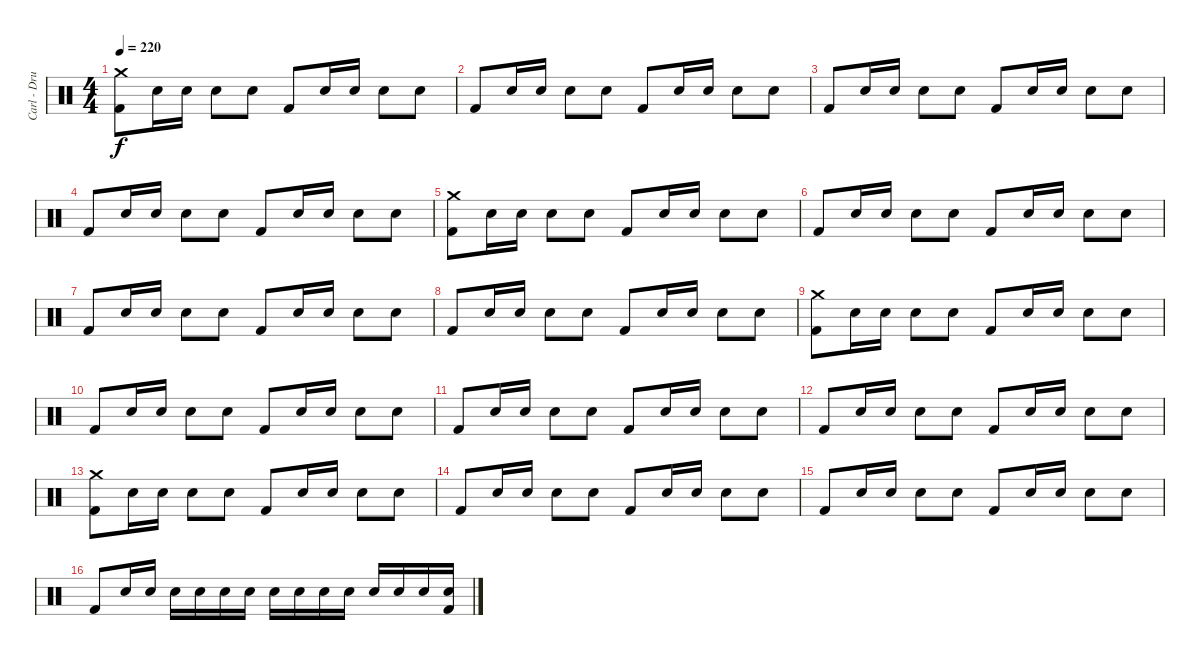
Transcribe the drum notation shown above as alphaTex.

\track ("Carl - Drums" "Carl - Dru") {instrument percussion}
\staff {score}
\articulation defaults
\ts (4 4)
\tempo 220
\clef neutral
\ks c
("Crash medium (hit)" "Kick (hit) 2").8{dy f} "Electric Snare (hit)".16 "Electric Snare (hit)".16 "Electric Snare (hit)".8 "Electric Snare (hit)".8 "Kick (hit) 2".8 "Electric Snare (hit)".16 "Electric Snare (hit)".16 "Electric Snare (hit)".8 "Electric Snare (hit)".8 |
"Kick (hit) 2".8 "Electric Snare (hit)".16 "Electric Snare (hit)".16 "Electric Snare (hit)".8 "Electric Snare (hit)".8 "Kick (hit) 2".8 "Electric Snare (hit)".16 "Electric Snare (hit)".16 "Electric Snare (hit)".8 "Electric Snare (hit)".8 |
"Kick (hit) 2".8 "Electric Snare (hit)".16 "Electric Snare (hit)".16 "Electric Snare (hit)".8 "Electric Snare (hit)".8 "Kick (hit) 2".8 "Electric Snare (hit)".16 "Electric Snare (hit)".16 "Electric Snare (hit)".8 "Electric Snare (hit)".8 |
"Kick (hit) 2".8 "Electric Snare (hit)".16 "Electric Snare (hit)".16 "Electric Snare (hit)".8 "Electric Snare (hit)".8 "Kick (hit) 2".8 "Electric Snare (hit)".16 "Electric Snare (hit)".16 "Electric Snare (hit)".8 "Electric Snare (hit)".8 |
("Crash medium (hit)" "Kick (hit) 2").8 "Electric Snare (hit)".16 "Electric Snare (hit)".16 "Electric Snare (hit)".8 "Electric Snare (hit)".8 "Kick (hit) 2".8 "Electric Snare (hit)".16 "Electric Snare (hit)".16 "Electric Snare (hit)".8 "Electric Snare (hit)".8 |
"Kick (hit) 2".8 "Electric Snare (hit)".16 "Electric Snare (hit)".16 "Electric Snare (hit)".8 "Electric Snare (hit)".8 "Kick (hit) 2".8 "Electric Snare (hit)".16 "Electric Snare (hit)".16 "Electric Snare (hit)".8 "Electric Snare (hit)".8 |
"Kick (hit) 2".8 "Electric Snare (hit)".16 "Electric Snare (hit)".16 "Electric Snare (hit)".8 "Electric Snare (hit)".8 "Kick (hit) 2".8 "Electric Snare (hit)".16 "Electric Snare (hit)".16 "Electric Snare (hit)".8 "Electric Snare (hit)".8 |
"Kick (hit) 2".8 "Electric Snare (hit)".16 "Electric Snare (hit)".16 "Electric Snare (hit)".8 "Electric Snare (hit)".8 "Kick (hit) 2".8 "Electric Snare (hit)".16 "Electric Snare (hit)".16 "Electric Snare (hit)".8 "Electric Snare (hit)".8 |
("Crash medium (hit)" "Kick (hit) 2").8 "Electric Snare (hit)".16 "Electric Snare (hit)".16 "Electric Snare (hit)".8 "Electric Snare (hit)".8 "Kick (hit) 2".8 "Electric Snare (hit)".16 "Electric Snare (hit)".16 "Electric Snare (hit)".8 "Electric Snare (hit)".8 |
"Kick (hit) 2".8 "Electric Snare (hit)".16 "Electric Snare (hit)".16 "Electric Snare (hit)".8 "Electric Snare (hit)".8 "Kick (hit) 2".8 "Electric Snare (hit)".16 "Electric Snare (hit)".16 "Electric Snare (hit)".8 "Electric Snare (hit)".8 |
"Kick (hit) 2".8 "Electric Snare (hit)".16 "Electric Snare (hit)".16 "Electric Snare (hit)".8 "Electric Snare (hit)".8 "Kick (hit) 2".8 "Electric Snare (hit)".16 "Electric Snare (hit)".16 "Electric Snare (hit)".8 "Electric Snare (hit)".8 |
"Kick (hit) 2".8 "Electric Snare (hit)".16 "Electric Snare (hit)".16 "Electric Snare (hit)".8 "Electric Snare (hit)".8 "Kick (hit) 2".8 "Electric Snare (hit)".16 "Electric Snare (hit)".16 "Electric Snare (hit)".8 "Electric Snare (hit)".8 |
("Crash medium (hit)" "Kick (hit) 2").8 "Electric Snare (hit)".16 "Electric Snare (hit)".16 "Electric Snare (hit)".8 "Electric Snare (hit)".8 "Kick (hit) 2".8 "Electric Snare (hit)".16 "Electric Snare (hit)".16 "Electric Snare (hit)".8 "Electric Snare (hit)".8 |
"Kick (hit) 2".8 "Electric Snare (hit)".16 "Electric Snare (hit)".16 "Electric Snare (hit)".8 "Electric Snare (hit)".8 "Kick (hit) 2".8 "Electric Snare (hit)".16 "Electric Snare (hit)".16 "Electric Snare (hit)".8 "Electric Snare (hit)".8 |
"Kick (hit) 2".8 "Electric Snare (hit)".16 "Electric Snare (hit)".16 "Electric Snare (hit)".8 "Electric Snare (hit)".8 "Kick (hit) 2".8 "Electric Snare (hit)".16 "Electric Snare (hit)".16 "Electric Snare (hit)".8 "Electric Snare (hit)".8 |
"Kick (hit) 2".8 "Electric Snare (hit)".16 "Electric Snare (hit)".16 "Electric Snare (hit)".16 "Electric Snare (hit)".16 "Electric Snare (hit)".16 "Electric Snare (hit)".16 "Electric Snare (hit)".16 "Electric Snare (hit)".16 "Electric Snare (hit)".16 "Electric Snare (hit)".16 "Electric Snare (hit)".16 "Electric Snare (hit)".16 "Electric Snare (hit)".16 ("Kick (hit) 2" "Electric Snare (hit)").16
